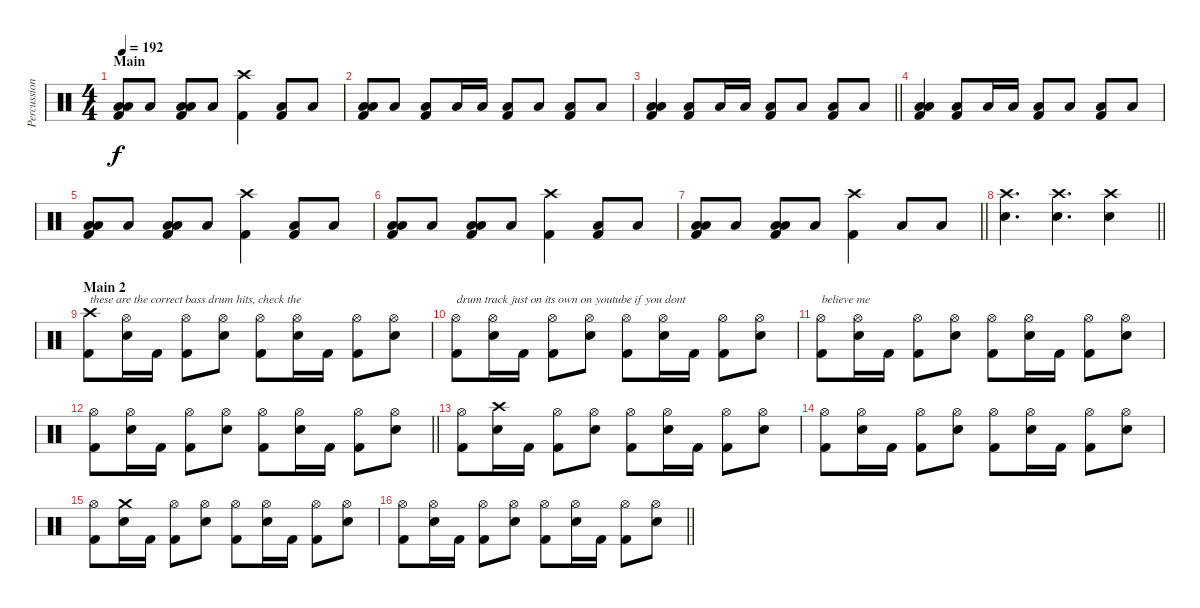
\track ("Percussion" "Percussion") {instrument percussion}
\staff {score}
\articulation defaults
\ts (4 4)
\section ("" "Main")
\tempo 192
\clef neutral
\ks c
("Low Tom (hit)" "Low Floor Tom (hit)" "Kick (hit) 2").8{dy f} "Low Floor Tom (hit)".8 ("Low Tom (hit)" "Low Floor Tom (hit)" "Kick (hit) 2").8 "Low Floor Tom (hit)".8 ("Crash high (hit)" "Kick (hit) 2").4 ("Low Floor Tom (hit)" "Kick (hit) 2").8 "Low Floor Tom (hit)".8 |
("Low Tom (hit)" "Low Floor Tom (hit)" "Kick (hit) 2").8 "Low Floor Tom (hit)".8 ("Low Floor Tom (hit)" "Kick (hit) 2").8 "Low Floor Tom (hit)".16 "Low Tom (hit)".16 ("Low Floor Tom (hit)" "Kick (hit) 2").8 "Low Floor Tom (hit)".8 ("Low Floor Tom (hit)" "Kick (hit) 2").8 "Low Floor Tom (hit)".8 |
\barLineRight lightlight
("Low Tom (hit)" "Low Floor Tom (hit)" "Kick (hit) 2").4 ("Low Floor Tom (hit)" "Kick (hit) 2").8 "Low Floor Tom (hit)".16 "Low Tom (hit)".16 ("Low Floor Tom (hit)" "Kick (hit) 2").8 "Low Floor Tom (hit)".8 ("Low Floor Tom (hit)" "Kick (hit) 2").8 "Low Floor Tom (hit)".8 |
("Low Tom (hit)" "Low Floor Tom (hit)" "Kick (hit) 2").4 ("Low Floor Tom (hit)" "Kick (hit) 2").8 "Low Floor Tom (hit)".16 "Low Tom (hit)".16 ("Low Floor Tom (hit)" "Kick (hit) 2").8 "Low Floor Tom (hit)".8 ("Low Floor Tom (hit)" "Kick (hit) 2").8 "Low Floor Tom (hit)".8 |
("Low Tom (hit)" "Low Floor Tom (hit)" "Kick (hit) 2").8 "Low Floor Tom (hit)".8 ("Low Tom (hit)" "Low Floor Tom (hit)" "Kick (hit) 2").8 "Low Floor Tom (hit)".8 ("Crash high (hit)" "Kick (hit) 2").4 ("Low Floor Tom (hit)" "Kick (hit) 2").8 "Low Floor Tom (hit)".8 |
("Low Tom (hit)" "Low Floor Tom (hit)" "Kick (hit) 2").8 "Low Floor Tom (hit)".8 ("Low Tom (hit)" "Low Floor Tom (hit)" "Kick (hit) 2").8 "Low Floor Tom (hit)".8 ("Crash high (hit)" "Kick (hit) 2").4 ("Low Floor Tom (hit)" "Kick (hit) 2").8 "Low Floor Tom (hit)".8 |
\barLineRight lightlight
("Low Tom (hit)" "Low Floor Tom (hit)" "Kick (hit) 2").8 "Low Floor Tom (hit)".8 ("Low Tom (hit)" "Low Floor Tom (hit)" "Kick (hit) 2").8 "Low Floor Tom (hit)".8 ("Crash high (hit)" "Kick (hit) 2").4 "Low Floor Tom (hit)".8 "Low Floor Tom (hit)".8 |
\barLineRight lightlight
("Crash high (hit)" "Electric Snare (hit)").4{d} ("Crash high (hit)" "Electric Snare (hit)").4{d} ("Crash high (hit)" "Electric Snare (hit)").4 |
\section ("" "Main 2")
("Crash high (hit)" "Kick (hit) 2").8{txt "these are the correct bass drum hits, check the"} ("Hi-Hat (open)" "Electric Snare (hit)").16 "Kick (hit) 2".16 ("Hi-Hat (open)" "Kick (hit) 2").8 ("Hi-Hat (open)" "Electric Snare (hit)").8 ("Hi-Hat (open)" "Kick (hit) 2").8 ("Hi-Hat (open)" "Electric Snare (hit)").16 "Kick (hit) 2".16 ("Hi-Hat (open)" "Kick (hit) 2").8 ("Hi-Hat (open)" "Electric Snare (hit)").8 |
("Hi-Hat (open)" "Kick (hit) 2").8{txt "drum track just on its own on youtube if you dont"} ("Hi-Hat (open)" "Electric Snare (hit)").16 "Kick (hit) 2".16 ("Hi-Hat (open)" "Kick (hit) 2").8 ("Hi-Hat (open)" "Electric Snare (hit)").8 ("Hi-Hat (open)" "Kick (hit) 2").8 ("Hi-Hat (open)" "Electric Snare (hit)").16 "Kick (hit) 2".16 ("Hi-Hat (open)" "Kick (hit) 2").8 ("Hi-Hat (open)" "Electric Snare (hit)").8 |
("Hi-Hat (open)" "Kick (hit) 2").8{txt "believe me"} ("Hi-Hat (open)" "Electric Snare (hit)").16 "Kick (hit) 2".16 ("Hi-Hat (open)" "Kick (hit) 2").8 ("Hi-Hat (open)" "Electric Snare (hit)").8 ("Hi-Hat (open)" "Kick (hit) 2").8 ("Hi-Hat (open)" "Electric Snare (hit)").16 "Kick (hit) 2".16 ("Hi-Hat (open)" "Kick (hit) 2").8 ("Hi-Hat (open)" "Electric Snare (hit)").8 |
\barLineRight lightlight
("Hi-Hat (open)" "Kick (hit) 2").8 ("Hi-Hat (open)" "Electric Snare (hit)").16 "Kick (hit) 2".16 ("Hi-Hat (open)" "Kick (hit) 2").8 ("Hi-Hat (open)" "Electric Snare (hit)").8 ("Hi-Hat (open)" "Kick (hit) 2").8 ("Hi-Hat (open)" "Electric Snare (hit)").16 "Kick (hit) 2".16 ("Hi-Hat (open)" "Kick (hit) 2").8 ("Hi-Hat (open)" "Electric Snare (hit)").8 |
("Hi-Hat (open)" "Kick (hit) 2").8 ("Crash high (hit)" "Electric Snare (hit)").16 "Kick (hit) 2".16 ("Hi-Hat (open)" "Kick (hit) 2").8 ("Hi-Hat (open)" "Electric Snare (hit)").8 ("Hi-Hat (open)" "Kick (hit) 2").8 ("Hi-Hat (open)" "Electric Snare (hit)").16 "Kick (hit) 2".16 ("Hi-Hat (open)" "Kick (hit) 2").8 ("Hi-Hat (open)" "Electric Snare (hit)").8 |
("Hi-Hat (open)" "Kick (hit) 2").8 ("Hi-Hat (open)" "Electric Snare (hit)").16 "Kick (hit) 2".16 ("Hi-Hat (open)" "Kick (hit) 2").8 ("Hi-Hat (open)" "Electric Snare (hit)").8 ("Hi-Hat (open)" "Kick (hit) 2").8 ("Hi-Hat (open)" "Electric Snare (hit)").16 "Kick (hit) 2".16 ("Hi-Hat (open)" "Kick (hit) 2").8 ("Hi-Hat (open)" "Electric Snare (hit)").8 |
("Hi-Hat (open)" "Kick (hit) 2").8 ("Crash medium (hit)" "Electric Snare (hit)").16 "Kick (hit) 2".16 ("Hi-Hat (open)" "Kick (hit) 2").8 ("Hi-Hat (open)" "Electric Snare (hit)").8 ("Hi-Hat (open)" "Kick (hit) 2").8 ("Hi-Hat (open)" "Electric Snare (hit)").16 "Kick (hit) 2".16 ("Hi-Hat (open)" "Kick (hit) 2").8 ("Hi-Hat (open)" "Electric Snare (hit)").8 |
\barLineRight lightlight
("Hi-Hat (open)" "Kick (hit) 2").8 ("Hi-Hat (open)" "Electric Snare (hit)").16 "Kick (hit) 2".16 ("Hi-Hat (open)" "Kick (hit) 2").8 ("Hi-Hat (open)" "Electric Snare (hit)").8 ("Hi-Hat (open)" "Kick (hit) 2").8 ("Hi-Hat (open)" "Electric Snare (hit)").16 "Kick (hit) 2".16 ("Hi-Hat (open)" "Kick (hit) 2").8 ("Hi-Hat (open)" "Electric Snare (hit)").8
